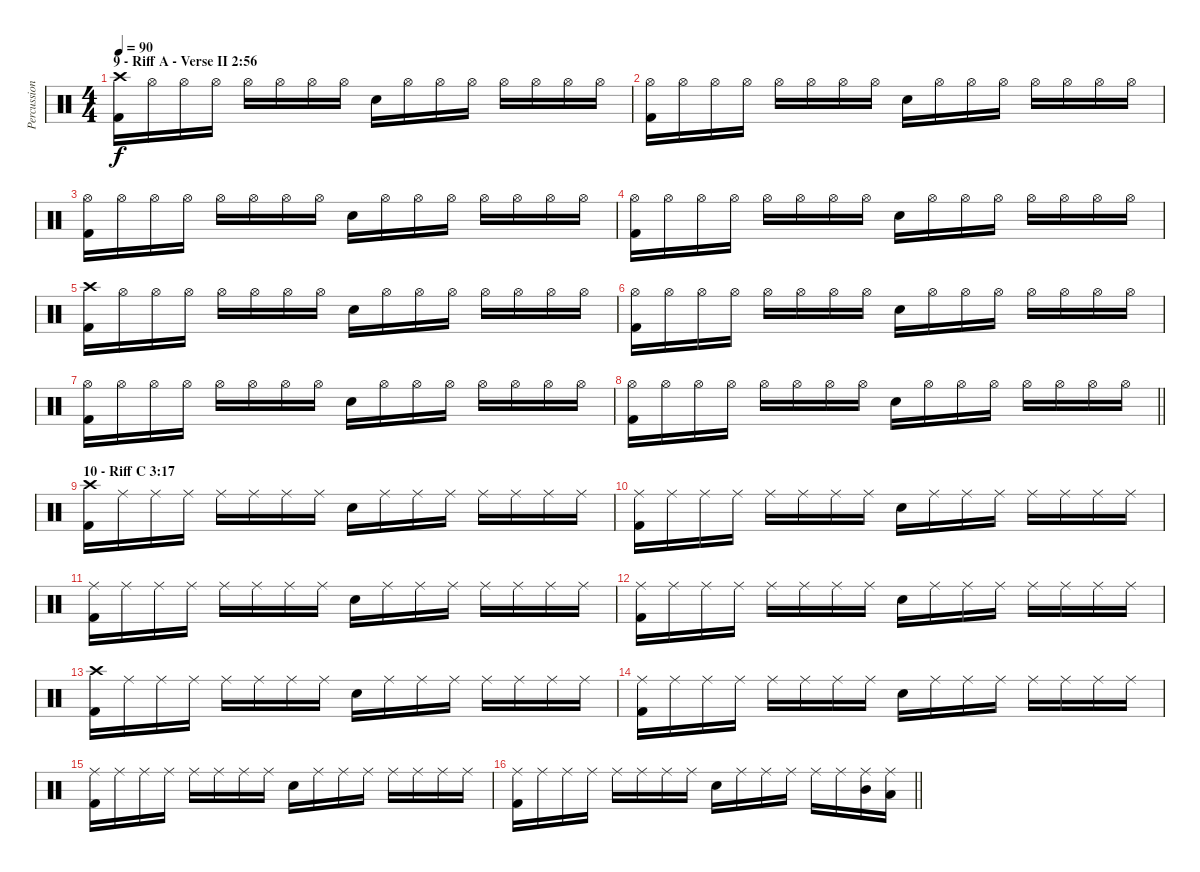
\track ("Percussion" "Percussion") {instrument percussion}
\staff {score}
\articulation defaults
\ts (4 4)
\section ("" "9 - Riff A - Verse II 2:56")
\tempo 90
\clef neutral
\ks c
("Crash high (hit)" "Kick (hit) 2").16{dy f} "Hi-Hat (open)".16 "Hi-Hat (open)".16 "Hi-Hat (open)".16 "Hi-Hat (open)".16 "Hi-Hat (open)".16 "Hi-Hat (open)".16 "Hi-Hat (open)".16 "Snare (hit) 2".16 "Hi-Hat (open)".16 "Hi-Hat (open)".16 "Hi-Hat (open)".16 "Hi-Hat (open)".16 "Hi-Hat (open)".16 "Hi-Hat (open)".16 "Hi-Hat (open)".16 |
("Hi-Hat (open)" "Kick (hit) 2").16 "Hi-Hat (open)".16 "Hi-Hat (open)".16 "Hi-Hat (open)".16 "Hi-Hat (open)".16 "Hi-Hat (open)".16 "Hi-Hat (open)".16 "Hi-Hat (open)".16 "Snare (hit) 2".16 "Hi-Hat (open)".16 "Hi-Hat (open)".16 "Hi-Hat (open)".16 "Hi-Hat (open)".16 "Hi-Hat (open)".16 "Hi-Hat (open)".16 "Hi-Hat (open)".16 |
("Hi-Hat (open)" "Kick (hit) 2").16 "Hi-Hat (open)".16 "Hi-Hat (open)".16 "Hi-Hat (open)".16 "Hi-Hat (open)".16 "Hi-Hat (open)".16 "Hi-Hat (open)".16 "Hi-Hat (open)".16 "Snare (hit) 2".16 "Hi-Hat (open)".16 "Hi-Hat (open)".16 "Hi-Hat (open)".16 "Hi-Hat (open)".16 "Hi-Hat (open)".16 "Hi-Hat (open)".16 "Hi-Hat (open)".16 |
("Hi-Hat (open)" "Kick (hit) 2").16 "Hi-Hat (open)".16 "Hi-Hat (open)".16 "Hi-Hat (open)".16 "Hi-Hat (open)".16 "Hi-Hat (open)".16 "Hi-Hat (open)".16 "Hi-Hat (open)".16 "Snare (hit) 2".16 "Hi-Hat (open)".16 "Hi-Hat (open)".16 "Hi-Hat (open)".16 "Hi-Hat (open)".16 "Hi-Hat (open)".16 "Hi-Hat (open)".16 "Hi-Hat (open)".16 |
("Crash high (hit)" "Kick (hit) 2").16 "Hi-Hat (open)".16 "Hi-Hat (open)".16 "Hi-Hat (open)".16 "Hi-Hat (open)".16 "Hi-Hat (open)".16 "Hi-Hat (open)".16 "Hi-Hat (open)".16 "Snare (hit) 2".16 "Hi-Hat (open)".16 "Hi-Hat (open)".16 "Hi-Hat (open)".16 "Hi-Hat (open)".16 "Hi-Hat (open)".16 "Hi-Hat (open)".16 "Hi-Hat (open)".16 |
("Hi-Hat (open)" "Kick (hit) 2").16 "Hi-Hat (open)".16 "Hi-Hat (open)".16 "Hi-Hat (open)".16 "Hi-Hat (open)".16 "Hi-Hat (open)".16 "Hi-Hat (open)".16 "Hi-Hat (open)".16 "Snare (hit) 2".16 "Hi-Hat (open)".16 "Hi-Hat (open)".16 "Hi-Hat (open)".16 "Hi-Hat (open)".16 "Hi-Hat (open)".16 "Hi-Hat (open)".16 "Hi-Hat (open)".16 |
("Hi-Hat (open)" "Kick (hit) 2").16 "Hi-Hat (open)".16 "Hi-Hat (open)".16 "Hi-Hat (open)".16 "Hi-Hat (open)".16 "Hi-Hat (open)".16 "Hi-Hat (open)".16 "Hi-Hat (open)".16 "Snare (hit) 2".16 "Hi-Hat (open)".16 "Hi-Hat (open)".16 "Hi-Hat (open)".16 "Hi-Hat (open)".16 "Hi-Hat (open)".16 "Hi-Hat (open)".16 "Hi-Hat (open)".16 |
\barLineRight lightlight
("Hi-Hat (open)" "Kick (hit) 2").16 "Hi-Hat (open)".16 "Hi-Hat (open)".16 "Hi-Hat (open)".16 "Hi-Hat (open)".16 "Hi-Hat (open)".16 "Hi-Hat (open)".16 "Hi-Hat (open)".16 "Snare (hit) 2".16 "Hi-Hat (open)".16 "Hi-Hat (open)".16 "Hi-Hat (open)".16 "Hi-Hat (open)".16 "Hi-Hat (open)".16 "Hi-Hat (open)".16 "Hi-Hat (open)".16 |
\section ("" "10 - Riff C 3:17")
("Crash high (hit)" "Kick (hit) 2").16 "Ride (middle)".16 "Ride (middle)".16 "Ride (middle)".16 "Ride (middle)".16 "Ride (middle)".16 "Ride (middle)".16 "Ride (middle)".16 "Snare (hit) 2".16 "Ride (middle)".16 "Ride (middle)".16 "Ride (middle)".16 "Ride (middle)".16 "Ride (middle)".16 "Ride (middle)".16 "Ride (middle)".16 |
("Ride (middle)" "Kick (hit) 2").16 "Ride (middle)".16 "Ride (middle)".16 "Ride (middle)".16 "Ride (middle)".16 "Ride (middle)".16 "Ride (middle)".16 "Ride (middle)".16 "Snare (hit) 2".16 "Ride (middle)".16 "Ride (middle)".16 "Ride (middle)".16 "Ride (middle)".16 "Ride (middle)".16 "Ride (middle)".16 "Ride (middle)".16 |
("Ride (middle)" "Kick (hit) 2").16 "Ride (middle)".16 "Ride (middle)".16 "Ride (middle)".16 "Ride (middle)".16 "Ride (middle)".16 "Ride (middle)".16 "Ride (middle)".16 "Snare (hit) 2".16 "Ride (middle)".16 "Ride (middle)".16 "Ride (middle)".16 "Ride (middle)".16 "Ride (middle)".16 "Ride (middle)".16 "Ride (middle)".16 |
("Ride (middle)" "Kick (hit) 2").16 "Ride (middle)".16 "Ride (middle)".16 "Ride (middle)".16 "Ride (middle)".16 "Ride (middle)".16 "Ride (middle)".16 "Ride (middle)".16 "Snare (hit) 2".16 "Ride (middle)".16 "Ride (middle)".16 "Ride (middle)".16 "Ride (middle)".16 "Ride (middle)".16 "Ride (middle)".16 "Ride (middle)".16 |
("Crash high (hit)" "Kick (hit) 2").16 "Ride (middle)".16 "Ride (middle)".16 "Ride (middle)".16 "Ride (middle)".16 "Ride (middle)".16 "Ride (middle)".16 "Ride (middle)".16 "Snare (hit) 2".16 "Ride (middle)".16 "Ride (middle)".16 "Ride (middle)".16 "Ride (middle)".16 "Ride (middle)".16 "Ride (middle)".16 "Ride (middle)".16 |
("Ride (middle)" "Kick (hit) 2").16 "Ride (middle)".16 "Ride (middle)".16 "Ride (middle)".16 "Ride (middle)".16 "Ride (middle)".16 "Ride (middle)".16 "Ride (middle)".16 "Snare (hit) 2".16 "Ride (middle)".16 "Ride (middle)".16 "Ride (middle)".16 "Ride (middle)".16 "Ride (middle)".16 "Ride (middle)".16 "Ride (middle)".16 |
("Ride (middle)" "Kick (hit) 2").16 "Ride (middle)".16 "Ride (middle)".16 "Ride (middle)".16 "Ride (middle)".16 "Ride (middle)".16 "Ride (middle)".16 "Ride (middle)".16 "Snare (hit) 2".16 "Ride (middle)".16 "Ride (middle)".16 "Ride (middle)".16 "Ride (middle)".16 "Ride (middle)".16 "Ride (middle)".16 "Ride (middle)".16 |
\barLineRight lightlight
("Ride (middle)" "Kick (hit) 2").16 "Ride (middle)".16 "Ride (middle)".16 "Ride (middle)".16 "Ride (middle)".16 "Ride (middle)".16 "Ride (middle)".16 "Ride (middle)".16 "Snare (hit) 2".16 "Ride (middle)".16 "Ride (middle)".16 "Ride (middle)".16 "Ride (middle)".16 "Ride (middle)".16 ("Ride (middle)" "Mid Tom (hit)").16 ("Ride (middle)" "Low Tom (hit)").16
